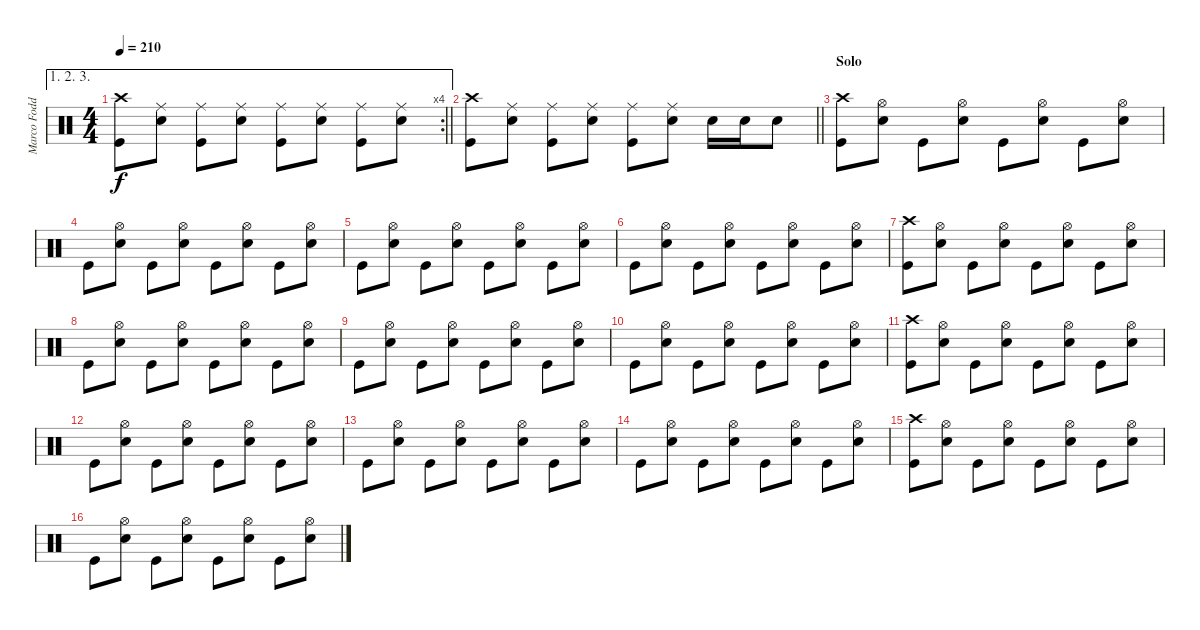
\track ("Marco Foddis" "Marco Fodd") {instrument percussion}
\staff {score}
\articulation defaults
\ae (1 2 3)
\rc 4
\ts (4 4)
\tempo 210
\clef neutral
\barLineRight lightlight
\ks c
("Crash high (hit)" "Kick (hit)").8{dy f} ("Ride (middle)" "Snare (hit) 2").8 ("Ride (middle)" "Kick (hit)").8 ("Ride (middle)" "Snare (hit) 2").8 ("Ride (middle)" "Kick (hit)").8 ("Ride (middle)" "Snare (hit) 2").8 ("Ride (middle)" "Kick (hit)").8 ("Ride (middle)" "Snare (hit) 2").8 |
\barLineRight lightlight
("Crash high (hit)" "Kick (hit)").8 ("Ride (middle)" "Snare (hit) 2").8 ("Ride (middle)" "Kick (hit)").8 ("Ride (middle)" "Snare (hit) 2").8 ("Ride (middle)" "Kick (hit)").8 ("Ride (middle)" "Snare (hit) 2").8 "Snare (hit) 2".16 "Snare (hit) 2".16 "Snare (hit) 2".8 |
\section ("" "Solo")
("Crash high (hit)" "Kick (hit)").8 ("Hi-Hat (open)" "Snare (hit) 2").8 "Kick (hit)".8 ("Hi-Hat (open)" "Snare (hit) 2").8 "Kick (hit)".8 ("Hi-Hat (open)" "Snare (hit) 2").8 "Kick (hit)".8 ("Hi-Hat (open)" "Snare (hit) 2").8 |
"Kick (hit)".8 ("Hi-Hat (open)" "Snare (hit) 2").8 "Kick (hit)".8 ("Hi-Hat (open)" "Snare (hit) 2").8 "Kick (hit)".8 ("Hi-Hat (open)" "Snare (hit) 2").8 "Kick (hit)".8 ("Hi-Hat (open)" "Snare (hit) 2").8 |
"Kick (hit)".8 ("Hi-Hat (open)" "Snare (hit) 2").8 "Kick (hit)".8 ("Hi-Hat (open)" "Snare (hit) 2").8 "Kick (hit)".8 ("Hi-Hat (open)" "Snare (hit) 2").8 "Kick (hit)".8 ("Hi-Hat (open)" "Snare (hit) 2").8 |
"Kick (hit)".8 ("Hi-Hat (open)" "Snare (hit) 2").8 "Kick (hit)".8 ("Hi-Hat (open)" "Snare (hit) 2").8 "Kick (hit)".8 ("Hi-Hat (open)" "Snare (hit) 2").8 "Kick (hit)".8 ("Hi-Hat (open)" "Snare (hit) 2").8 |
("Crash high (hit)" "Kick (hit)").8 ("Hi-Hat (open)" "Snare (hit) 2").8 "Kick (hit)".8 ("Hi-Hat (open)" "Snare (hit) 2").8 "Kick (hit)".8 ("Hi-Hat (open)" "Snare (hit) 2").8 "Kick (hit)".8 ("Hi-Hat (open)" "Snare (hit) 2").8 |
"Kick (hit)".8 ("Hi-Hat (open)" "Snare (hit) 2").8 "Kick (hit)".8 ("Hi-Hat (open)" "Snare (hit) 2").8 "Kick (hit)".8 ("Hi-Hat (open)" "Snare (hit) 2").8 "Kick (hit)".8 ("Hi-Hat (open)" "Snare (hit) 2").8 |
"Kick (hit)".8 ("Hi-Hat (open)" "Snare (hit) 2").8 "Kick (hit)".8 ("Hi-Hat (open)" "Snare (hit) 2").8 "Kick (hit)".8 ("Hi-Hat (open)" "Snare (hit) 2").8 "Kick (hit)".8 ("Hi-Hat (open)" "Snare (hit) 2").8 |
"Kick (hit)".8 ("Hi-Hat (open)" "Snare (hit) 2").8 "Kick (hit)".8 ("Hi-Hat (open)" "Snare (hit) 2").8 "Kick (hit)".8 ("Hi-Hat (open)" "Snare (hit) 2").8 "Kick (hit)".8 ("Hi-Hat (open)" "Snare (hit) 2").8 |
("Crash high (hit)" "Kick (hit)").8 ("Hi-Hat (open)" "Snare (hit) 2").8 "Kick (hit)".8 ("Hi-Hat (open)" "Snare (hit) 2").8 "Kick (hit)".8 ("Hi-Hat (open)" "Snare (hit) 2").8 "Kick (hit)".8 ("Hi-Hat (open)" "Snare (hit) 2").8 |
"Kick (hit)".8 ("Hi-Hat (open)" "Snare (hit) 2").8 "Kick (hit)".8 ("Hi-Hat (open)" "Snare (hit) 2").8 "Kick (hit)".8 ("Hi-Hat (open)" "Snare (hit) 2").8 "Kick (hit)".8 ("Hi-Hat (open)" "Snare (hit) 2").8 |
"Kick (hit)".8 ("Hi-Hat (open)" "Snare (hit) 2").8 "Kick (hit)".8 ("Hi-Hat (open)" "Snare (hit) 2").8 "Kick (hit)".8 ("Hi-Hat (open)" "Snare (hit) 2").8 "Kick (hit)".8 ("Hi-Hat (open)" "Snare (hit) 2").8 |
"Kick (hit)".8 ("Hi-Hat (open)" "Snare (hit) 2").8 "Kick (hit)".8 ("Hi-Hat (open)" "Snare (hit) 2").8 "Kick (hit)".8 ("Hi-Hat (open)" "Snare (hit) 2").8 "Kick (hit)".8 ("Hi-Hat (open)" "Snare (hit) 2").8 |
("Crash high (hit)" "Kick (hit)").8 ("Hi-Hat (open)" "Snare (hit) 2").8 "Kick (hit)".8 ("Hi-Hat (open)" "Snare (hit) 2").8 "Kick (hit)".8 ("Hi-Hat (open)" "Snare (hit) 2").8 "Kick (hit)".8 ("Hi-Hat (open)" "Snare (hit) 2").8 |
"Kick (hit)".8 ("Hi-Hat (open)" "Snare (hit) 2").8 "Kick (hit)".8 ("Hi-Hat (open)" "Snare (hit) 2").8 "Kick (hit)".8 ("Hi-Hat (open)" "Snare (hit) 2").8 "Kick (hit)".8 ("Hi-Hat (open)" "Snare (hit) 2").8
